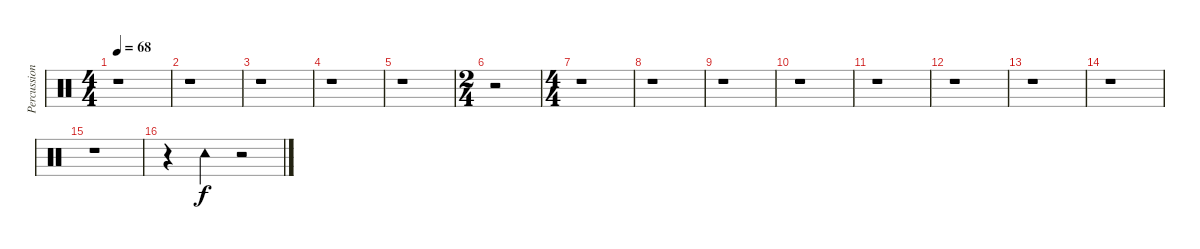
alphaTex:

\track ("Percussion" "Percussion") {instrument percussion}
\staff {score}
\articulation defaults
\ts (4 4)
\tempo 68
\clef neutral
\ks c
r.1{dy f} |
r.1 |
r.1 |
r.1 |
r.1 |
\ts (2 4)
r.2 |
\ts (4 4)
r.1 |
r.1 |
r.1 |
r.1 |
r.1 |
r.1 |
r.1 |
r.1 |
r.1 |
r.4 "Tambourine (hit)".4 r.2
